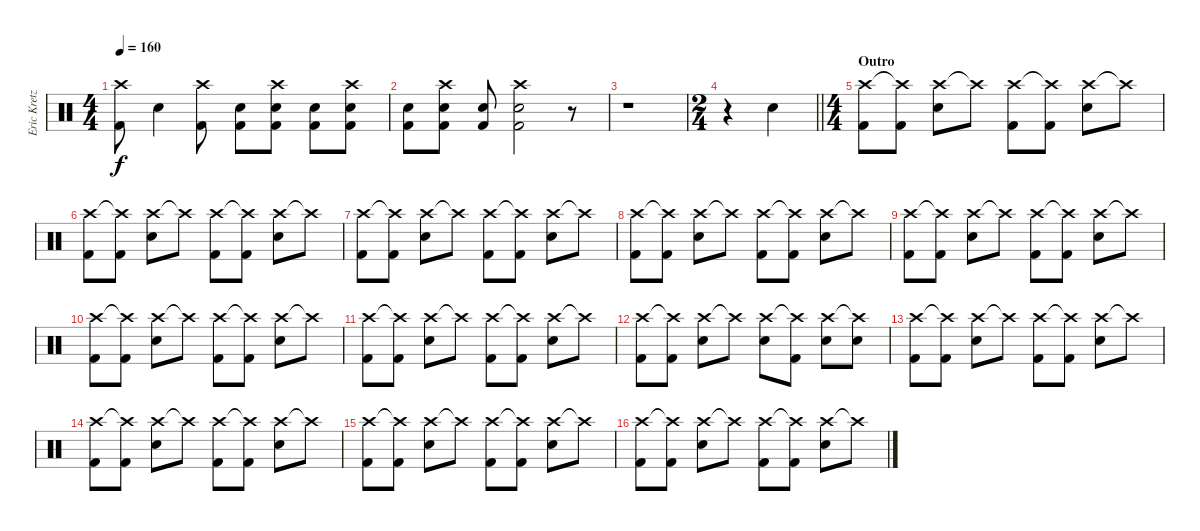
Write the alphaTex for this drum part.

\track ("Eric Kretz (Drums)" "Eric Kretz") {instrument percussion}
\staff {score}
\articulation defaults
\ts (4 4)
\tempo 160
\clef neutral
\ks c
("Crash high (hit)" "Kick (hit) 2").8{dy f} "Snare (hit) 2".4 ("Crash high (hit)" "Kick (hit) 2").8 ("Snare (hit) 2" "Kick (hit) 2").8 ("Crash high (hit)" "Snare (hit) 2" "Kick (hit) 2").8 ("Snare (hit) 2" "Kick (hit) 2").8 ("Crash high (hit)" "Snare (hit) 2" "Kick (hit) 2").8 |
("Snare (hit) 2" "Kick (hit) 2").8 ("Crash high (hit)" "Snare (hit) 2" "Kick (hit) 2").8 ("Snare (hit) 2" "Kick (hit) 2").8 ("Crash high (hit)" "Snare (hit) 2" "Kick (hit) 2").2 r.8 |
r.1 |
\ts (2 4)
\barLineRight lightlight
r.4 "Snare (hit) 2".4 |
\ts (4 4)
\section ("" "Outro")
("Crash high (hit)" "Kick (hit) 2").8 ("Crash high (hit)"{t} "Kick (hit) 2").8 ("Crash high (hit)" "Snare (hit) 2").8 "Crash high (hit)"{t}.8 ("Crash high (hit)" "Kick (hit) 2").8 ("Crash high (hit)"{t} "Kick (hit) 2").8 ("Crash high (hit)" "Snare (hit) 2").8 "Crash high (hit)"{t}.8 |
("Crash high (hit)" "Kick (hit) 2").8 ("Crash high (hit)"{t} "Kick (hit) 2").8 ("Crash high (hit)" "Snare (hit) 2").8 "Crash high (hit)"{t}.8 ("Crash high (hit)" "Kick (hit) 2").8 ("Crash high (hit)"{t} "Kick (hit) 2").8 ("Crash high (hit)" "Snare (hit) 2").8 "Crash high (hit)"{t}.8 |
("Crash high (hit)" "Kick (hit) 2").8 ("Crash high (hit)"{t} "Kick (hit) 2").8 ("Crash high (hit)" "Snare (hit) 2").8 "Crash high (hit)"{t}.8 ("Crash high (hit)" "Kick (hit) 2").8 ("Crash high (hit)"{t} "Kick (hit) 2").8 ("Crash high (hit)" "Snare (hit) 2").8 "Crash high (hit)"{t}.8 |
("Crash high (hit)" "Kick (hit) 2").8 ("Crash high (hit)"{t} "Kick (hit) 2").8 ("Crash high (hit)" "Snare (hit) 2").8 "Crash high (hit)"{t}.8 ("Crash high (hit)" "Kick (hit) 2").8 ("Crash high (hit)"{t} "Kick (hit) 2").8 ("Crash high (hit)" "Snare (hit) 2").8 "Crash high (hit)"{t}.8 |
("Crash high (hit)" "Kick (hit) 2").8 ("Crash high (hit)"{t} "Kick (hit) 2").8 ("Crash high (hit)" "Snare (hit) 2").8 "Crash high (hit)"{t}.8 ("Crash high (hit)" "Kick (hit) 2").8 ("Crash high (hit)"{t} "Kick (hit) 2").8 ("Crash high (hit)" "Snare (hit) 2").8 "Crash high (hit)"{t}.8 |
("Crash high (hit)" "Kick (hit) 2").8 ("Crash high (hit)"{t} "Kick (hit) 2").8 ("Crash high (hit)" "Snare (hit) 2").8 "Crash high (hit)"{t}.8 ("Crash high (hit)" "Kick (hit) 2").8 ("Crash high (hit)"{t} "Kick (hit) 2").8 ("Crash high (hit)" "Snare (hit) 2").8 "Crash high (hit)"{t}.8 |
("Crash high (hit)" "Kick (hit) 2").8 ("Crash high (hit)"{t} "Kick (hit) 2").8 ("Crash high (hit)" "Snare (hit) 2").8 "Crash high (hit)"{t}.8 ("Crash high (hit)" "Kick (hit) 2").8 ("Crash high (hit)"{t} "Kick (hit) 2").8 ("Crash high (hit)" "Snare (hit) 2").8 "Crash high (hit)"{t}.8 |
("Crash high (hit)" "Kick (hit) 2").8 ("Crash high (hit)"{t} "Kick (hit) 2").8 ("Crash high (hit)" "Snare (hit) 2").8 "Crash high (hit)"{t}.8 ("Crash high (hit)" "Snare (hit) 2").8 ("Crash high (hit)"{t} "Kick (hit) 2").8 ("Crash high (hit)" "Snare (hit) 2").8 ("Crash high (hit)"{t} "Snare (hit) 2").8 |
("Crash high (hit)" "Kick (hit) 2").8 ("Crash high (hit)"{t} "Kick (hit) 2").8 ("Crash high (hit)" "Snare (hit) 2").8 "Crash high (hit)"{t}.8 ("Crash high (hit)" "Kick (hit) 2").8 ("Crash high (hit)"{t} "Kick (hit) 2").8 ("Crash high (hit)" "Snare (hit) 2").8 "Crash high (hit)"{t}.8 |
("Crash high (hit)" "Kick (hit) 2").8 ("Crash high (hit)"{t} "Kick (hit) 2").8 ("Crash high (hit)" "Snare (hit) 2").8 "Crash high (hit)"{t}.8 ("Crash high (hit)" "Kick (hit) 2").8 ("Crash high (hit)"{t} "Kick (hit) 2").8 ("Crash high (hit)" "Snare (hit) 2").8 "Crash high (hit)"{t}.8 |
("Crash high (hit)" "Kick (hit) 2").8 ("Crash high (hit)"{t} "Kick (hit) 2").8 ("Crash high (hit)" "Snare (hit) 2").8 "Crash high (hit)"{t}.8 ("Crash high (hit)" "Kick (hit) 2").8 ("Crash high (hit)"{t} "Kick (hit) 2").8 ("Crash high (hit)" "Snare (hit) 2").8 "Crash high (hit)"{t}.8 |
("Crash high (hit)" "Kick (hit) 2").8 ("Crash high (hit)"{t} "Kick (hit) 2").8 ("Crash high (hit)" "Snare (hit) 2").8 "Crash high (hit)"{t}.8 ("Crash high (hit)" "Kick (hit) 2").8 ("Crash high (hit)"{t} "Kick (hit) 2").8 ("Crash high (hit)" "Snare (hit) 2").8 "Crash high (hit)"{t}.8
